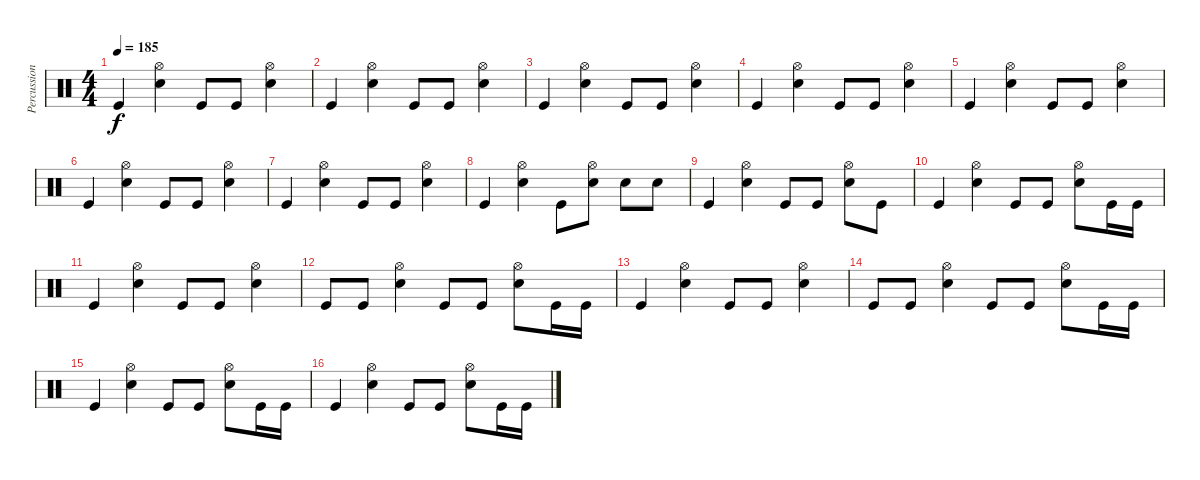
\track ("Percussions" "Percussion") {instrument percussion}
\staff {score}
\articulation defaults
\ts (4 4)
\tempo 185
\clef neutral
\ks c "Kick (hit)".4{dy f}
("Hi-Hat (open)" "Snare (hit) 2").4 "Kick (hit)".8 "Kick (hit)".8 ("Hi-Hat (open)" "Snare (hit) 2").4 |
"Kick (hit)".4 ("Hi-Hat (open)" "Snare (hit) 2").4 "Kick (hit)".8 "Kick (hit)".8 ("Hi-Hat (open)" "Snare (hit) 2").4 |
"Kick (hit)".4 ("Hi-Hat (open)" "Snare (hit) 2").4 "Kick (hit)".8 "Kick (hit)".8 ("Hi-Hat (open)" "Snare (hit) 2").4 |
"Kick (hit)".4 ("Hi-Hat (open)" "Snare (hit) 2").4 "Kick (hit)".8 "Kick (hit)".8 ("Hi-Hat (open)" "Snare (hit) 2").4 |
"Kick (hit)".4 ("Hi-Hat (open)" "Snare (hit) 2").4 "Kick (hit)".8 "Kick (hit)".8 ("Hi-Hat (open)" "Snare (hit) 2").4 |
"Kick (hit)".4 ("Hi-Hat (open)" "Snare (hit) 2").4 "Kick (hit)".8 "Kick (hit)".8 ("Hi-Hat (open)" "Snare (hit) 2").4 |
"Kick (hit)".4 ("Hi-Hat (open)" "Snare (hit) 2").4 "Kick (hit)".8 "Kick (hit)".8 ("Hi-Hat (open)" "Snare (hit) 2").4 |
"Kick (hit)".4 ("Hi-Hat (open)" "Snare (hit) 2").4 "Kick (hit)".8 ("Hi-Hat (open)" "Snare (hit) 2").8 "Snare (hit) 2".8 "Snare (hit) 2".8 |
"Kick (hit)".4 ("Hi-Hat (open)" "Snare (hit) 2").4 "Kick (hit)".8 "Kick (hit)".8 ("Hi-Hat (open)" "Snare (hit) 2").8 "Kick (hit)".8 |
"Kick (hit)".4 ("Hi-Hat (open)" "Snare (hit) 2").4 "Kick (hit)".8 "Kick (hit)".8 ("Hi-Hat (open)" "Snare (hit) 2").8 "Kick (hit)".16 "Kick (hit)".16 |
"Kick (hit)".4 ("Hi-Hat (open)" "Snare (hit) 2").4 "Kick (hit)".8 "Kick (hit)".8 ("Hi-Hat (open)" "Snare (hit) 2").4 |
"Kick (hit)".8 "Kick (hit)".8 ("Hi-Hat (open)" "Snare (hit) 2").4 "Kick (hit)".8 "Kick (hit)".8 ("Hi-Hat (open)" "Snare (hit) 2").8 "Kick (hit)".16 "Kick (hit)".16 |
"Kick (hit)".4 ("Hi-Hat (open)" "Snare (hit) 2").4 "Kick (hit)".8 "Kick (hit)".8 ("Hi-Hat (open)" "Snare (hit) 2").4 |
"Kick (hit)".8 "Kick (hit)".8 ("Hi-Hat (open)" "Snare (hit) 2").4 "Kick (hit)".8 "Kick (hit)".8 ("Hi-Hat (open)" "Snare (hit) 2").8 "Kick (hit)".16 "Kick (hit)".16 |
"Kick (hit)".4 ("Hi-Hat (open)" "Snare (hit) 2").4 "Kick (hit)".8 "Kick (hit)".8 ("Hi-Hat (open)" "Snare (hit) 2").8 "Kick (hit)".16 "Kick (hit)".16 |
"Kick (hit)".4 ("Hi-Hat (open)" "Snare (hit) 2").4 "Kick (hit)".8 "Kick (hit)".8 ("Hi-Hat (open)" "Snare (hit) 2").8 "Kick (hit)".16 "Kick (hit)".16
